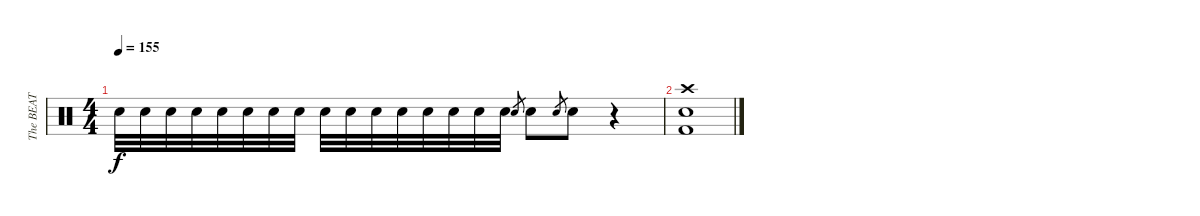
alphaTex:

\track ("The BEAT" "The BEAT") {instrument percussion}
\staff {score}
\articulation defaults
\ts (4 4)
\tempo 155
\clef neutral
\ks c "Electric Snare (hit)".32{dy f} "Electric Snare (hit)".32 "Electric Snare (hit)".32 "Electric Snare (hit)".32 "Electric Snare (hit)".32 "Electric Snare (hit)".32 "Electric Snare (hit)".32 "Electric Snare (hit)".32 "Electric Snare (hit)".32 "Electric Snare (hit)".32 "Electric Snare (hit)".32 "Electric Snare (hit)".32 "Electric Snare (hit)".32 "Electric Snare (hit)".32 "Electric Snare (hit)".32 "Electric Snare (hit)".32 "Electric Snare (hit)".8{gr} "Electric Snare (hit)".8 "Electric Snare (hit)".8{gr} "Electric Snare (hit)".8
r.4 |
("Crash high (hit)" "Electric Snare (hit)" "Kick (hit) 2").1
